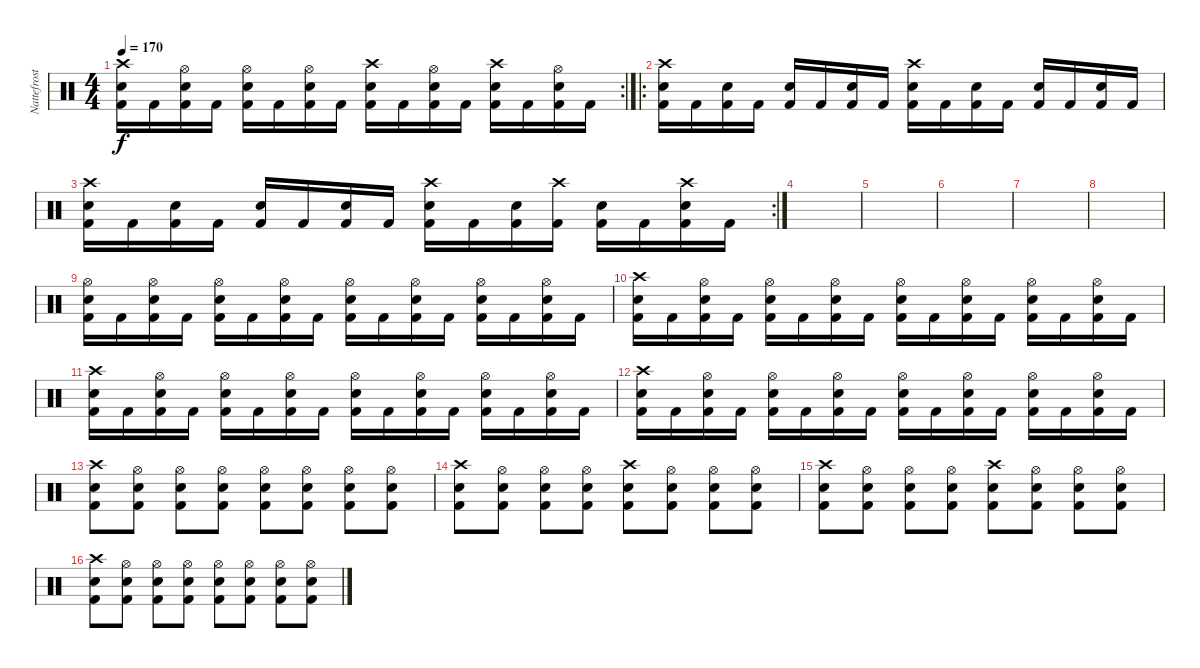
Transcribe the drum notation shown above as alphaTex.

\track ("Nattefrost" "Nattefrost") {instrument percussion}
\staff {score}
\articulation defaults
\rc 2
\ts (4 4)
\tempo 170
\clef neutral
\ks c
("Crash high (hit)" "Snare (hit) 2" "Kick (hit) 2").16{dy f} "Kick (hit) 2".16 ("Hi-Hat (open)" "Snare (hit) 2" "Kick (hit) 2").16 "Kick (hit) 2".16 ("Hi-Hat (open)" "Snare (hit) 2" "Kick (hit) 2").16 "Kick (hit) 2".16 ("Hi-Hat (open)" "Snare (hit) 2" "Kick (hit) 2").16 "Kick (hit) 2".16 ("Crash high (hit)" "Snare (hit) 2" "Kick (hit) 2").16 "Kick (hit) 2".16 ("Hi-Hat (open)" "Snare (hit) 2" "Kick (hit) 2").16 "Kick (hit) 2".16 ("Crash high (hit)" "Snare (hit) 2" "Kick (hit) 2").16 "Kick (hit) 2".16 ("Hi-Hat (open)" "Snare (hit) 2" "Kick (hit) 2").16 "Kick (hit) 2".16 |
\ro
("Crash high (hit)" "Snare (hit) 2" "Kick (hit) 2").16 "Kick (hit) 2".16 ("Snare (hit) 2" "Kick (hit) 2").16 "Kick (hit) 2".16 ("Snare (hit) 2" "Kick (hit) 2").16 "Kick (hit) 2".16 ("Snare (hit) 2" "Kick (hit) 2").16 "Kick (hit) 2".16 ("Crash high (hit)" "Snare (hit) 2" "Kick (hit) 2").16 "Kick (hit) 2".16 ("Snare (hit) 2" "Kick (hit) 2").16 "Kick (hit) 2".16 ("Snare (hit) 2" "Kick (hit) 2").16 "Kick (hit) 2".16 ("Snare (hit) 2" "Kick (hit) 2").16 "Kick (hit) 2".16 |
\rc 2
("Crash high (hit)" "Snare (hit) 2" "Kick (hit) 2").16 "Kick (hit) 2".16 ("Snare (hit) 2" "Kick (hit) 2").16 "Kick (hit) 2".16 ("Snare (hit) 2" "Kick (hit) 2").16 "Kick (hit) 2".16 ("Snare (hit) 2" "Kick (hit) 2").16 "Kick (hit) 2".16 ("Crash high (hit)" "Snare (hit) 2" "Kick (hit) 2").16 "Kick (hit) 2".16 ("Snare (hit) 2" "Kick (hit) 2").16 ("Crash high (hit)" "Kick (hit) 2").16 ("Snare (hit) 2" "Kick (hit) 2").16 "Kick (hit) 2".16 ("Crash high (hit)" "Snare (hit) 2" "Kick (hit) 2").16 "Kick (hit) 2".16 |
|
|
|
|
|
("Hi-Hat (open)" "Snare (hit) 2" "Kick (hit) 2").16 "Kick (hit) 2".16 ("Hi-Hat (open)" "Snare (hit) 2" "Kick (hit) 2").16 "Kick (hit) 2".16 ("Hi-Hat (open)" "Snare (hit) 2" "Kick (hit) 2").16 "Kick (hit) 2".16 ("Hi-Hat (open)" "Snare (hit) 2" "Kick (hit) 2").16 "Kick (hit) 2".16 ("Hi-Hat (open)" "Snare (hit) 2" "Kick (hit) 2").16 "Kick (hit) 2".16 ("Hi-Hat (open)" "Snare (hit) 2" "Kick (hit) 2").16 "Kick (hit) 2".16 ("Hi-Hat (open)" "Snare (hit) 2" "Kick (hit) 2").16 "Kick (hit) 2".16 ("Hi-Hat (open)" "Snare (hit) 2" "Kick (hit) 2").16 "Kick (hit) 2".16 |
("Crash high (hit)" "Snare (hit) 2" "Kick (hit) 2").16 "Kick (hit) 2".16 ("Hi-Hat (open)" "Snare (hit) 2" "Kick (hit) 2").16 "Kick (hit) 2".16 ("Hi-Hat (open)" "Snare (hit) 2" "Kick (hit) 2").16 "Kick (hit) 2".16 ("Hi-Hat (open)" "Snare (hit) 2" "Kick (hit) 2").16 "Kick (hit) 2".16 ("Hi-Hat (open)" "Snare (hit) 2" "Kick (hit) 2").16 "Kick (hit) 2".16 ("Hi-Hat (open)" "Snare (hit) 2" "Kick (hit) 2").16 "Kick (hit) 2".16 ("Hi-Hat (open)" "Snare (hit) 2" "Kick (hit) 2").16 "Kick (hit) 2".16 ("Hi-Hat (open)" "Snare (hit) 2" "Kick (hit) 2").16 "Kick (hit) 2".16 |
("Crash high (hit)" "Snare (hit) 2" "Kick (hit) 2").16 "Kick (hit) 2".16 ("Hi-Hat (open)" "Snare (hit) 2" "Kick (hit) 2").16 "Kick (hit) 2".16 ("Hi-Hat (open)" "Snare (hit) 2" "Kick (hit) 2").16 "Kick (hit) 2".16 ("Hi-Hat (open)" "Snare (hit) 2" "Kick (hit) 2").16 "Kick (hit) 2".16 ("Hi-Hat (open)" "Snare (hit) 2" "Kick (hit) 2").16 "Kick (hit) 2".16 ("Hi-Hat (open)" "Snare (hit) 2" "Kick (hit) 2").16 "Kick (hit) 2".16 ("Hi-Hat (open)" "Snare (hit) 2" "Kick (hit) 2").16 "Kick (hit) 2".16 ("Hi-Hat (open)" "Snare (hit) 2" "Kick (hit) 2").16 "Kick (hit) 2".16 |
("Crash high (hit)" "Snare (hit) 2" "Kick (hit) 2").16 "Kick (hit) 2".16 ("Hi-Hat (open)" "Snare (hit) 2" "Kick (hit) 2").16 "Kick (hit) 2".16 ("Hi-Hat (open)" "Snare (hit) 2" "Kick (hit) 2").16 "Kick (hit) 2".16 ("Hi-Hat (open)" "Snare (hit) 2" "Kick (hit) 2").16 "Kick (hit) 2".16 ("Hi-Hat (open)" "Snare (hit) 2" "Kick (hit) 2").16 "Kick (hit) 2".16 ("Hi-Hat (open)" "Snare (hit) 2" "Kick (hit) 2").16 "Kick (hit) 2".16 ("Hi-Hat (open)" "Snare (hit) 2" "Kick (hit) 2").16 "Kick (hit) 2".16 ("Hi-Hat (open)" "Snare (hit) 2" "Kick (hit) 2").16 "Kick (hit) 2".16 |
("Crash high (hit)" "Snare (hit) 2" "Kick (hit) 2").8 ("Hi-Hat (open)" "Snare (hit) 2" "Kick (hit) 2").8 ("Hi-Hat (open)" "Snare (hit) 2" "Kick (hit) 2").8 ("Hi-Hat (open)" "Snare (hit) 2" "Kick (hit) 2").8 ("Hi-Hat (open)" "Snare (hit) 2" "Kick (hit) 2").8 ("Hi-Hat (open)" "Snare (hit) 2" "Kick (hit) 2").8 ("Hi-Hat (open)" "Snare (hit) 2" "Kick (hit) 2").8 ("Hi-Hat (open)" "Snare (hit) 2" "Kick (hit) 2").8 |
("Crash high (hit)" "Snare (hit) 2" "Kick (hit) 2").8 ("Hi-Hat (open)" "Snare (hit) 2" "Kick (hit) 2").8 ("Hi-Hat (open)" "Snare (hit) 2" "Kick (hit) 2").8 ("Hi-Hat (open)" "Snare (hit) 2" "Kick (hit) 2").8 ("Crash high (hit)" "Snare (hit) 2" "Kick (hit) 2").8 ("Hi-Hat (open)" "Snare (hit) 2" "Kick (hit) 2").8 ("Hi-Hat (open)" "Snare (hit) 2" "Kick (hit) 2").8 ("Hi-Hat (open)" "Snare (hit) 2" "Kick (hit) 2").8 |
("Crash high (hit)" "Snare (hit) 2" "Kick (hit) 2").8 ("Hi-Hat (open)" "Snare (hit) 2" "Kick (hit) 2").8 ("Hi-Hat (open)" "Snare (hit) 2" "Kick (hit) 2").8 ("Hi-Hat (open)" "Snare (hit) 2" "Kick (hit) 2").8 ("Crash high (hit)" "Snare (hit) 2" "Kick (hit) 2").8 ("Hi-Hat (open)" "Snare (hit) 2" "Kick (hit) 2").8 ("Hi-Hat (open)" "Snare (hit) 2" "Kick (hit) 2").8 ("Hi-Hat (open)" "Snare (hit) 2" "Kick (hit) 2").8 |
("Crash high (hit)" "Snare (hit) 2" "Kick (hit) 2").8 ("Hi-Hat (open)" "Snare (hit) 2" "Kick (hit) 2").8 ("Hi-Hat (open)" "Snare (hit) 2" "Kick (hit) 2").8 ("Hi-Hat (open)" "Snare (hit) 2" "Kick (hit) 2").8 ("Hi-Hat (open)" "Snare (hit) 2" "Kick (hit) 2").8 ("Hi-Hat (open)" "Snare (hit) 2" "Kick (hit) 2").8 ("Hi-Hat (open)" "Snare (hit) 2" "Kick (hit) 2").8 ("Hi-Hat (open)" "Snare (hit) 2" "Kick (hit) 2").8
